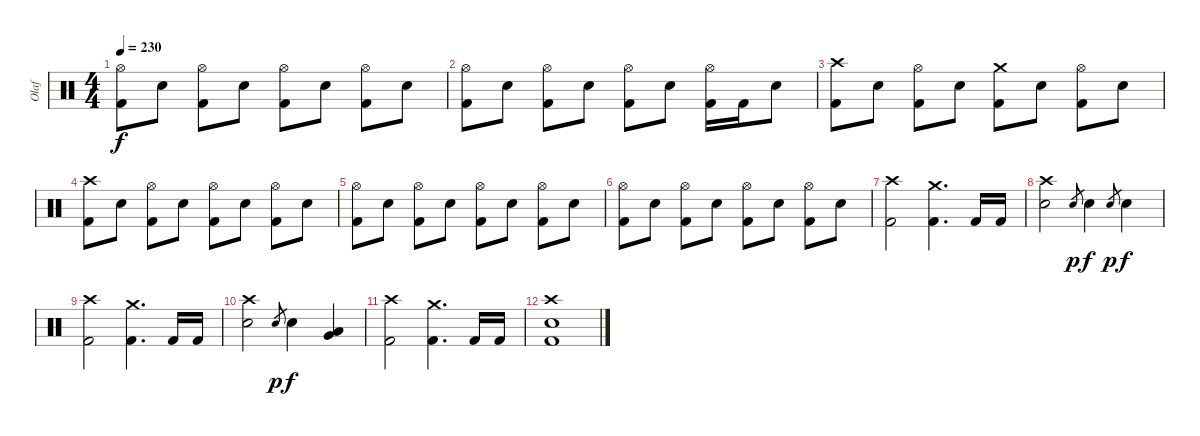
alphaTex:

\track ("Olaf" "Olaf") {instrument percussion}
\staff {score}
\articulation defaults
\ts (4 4)
\tempo 230
\clef neutral
\ks c
("Hi-Hat (open)" "Kick (hit) 2").8{dy f} "Electric Snare (hit)".8 ("Hi-Hat (open)" "Kick (hit) 2").8 "Electric Snare (hit)".8 ("Hi-Hat (open)" "Kick (hit) 2").8 "Electric Snare (hit)".8 ("Hi-Hat (open)" "Kick (hit) 2").8 "Electric Snare (hit)".8 |
("Hi-Hat (open)" "Kick (hit) 2").8 "Electric Snare (hit)".8 ("Hi-Hat (open)" "Kick (hit) 2").8 "Electric Snare (hit)".8 ("Hi-Hat (open)" "Kick (hit) 2").8 "Electric Snare (hit)".8 ("Hi-Hat (open)" "Kick (hit) 2").16 "Kick (hit) 2".16 "Electric Snare (hit)".8 |
("Crash high (hit)" "Kick (hit) 2").8 "Electric Snare (hit)".8 ("Hi-Hat (open)" "Kick (hit) 2").8 "Electric Snare (hit)".8 ("Crash medium (hit)" "Kick (hit) 2").8 "Electric Snare (hit)".8 ("Hi-Hat (open)" "Kick (hit) 2").8 "Electric Snare (hit)".8 |
("Crash high (hit)" "Kick (hit) 2").8 "Electric Snare (hit)".8 ("Hi-Hat (open)" "Kick (hit) 2").8 "Electric Snare (hit)".8 ("Hi-Hat (open)" "Kick (hit) 2").8 "Electric Snare (hit)".8 ("Hi-Hat (open)" "Kick (hit) 2").8 "Electric Snare (hit)".8 |
("Hi-Hat (open)" "Kick (hit) 2").8 "Electric Snare (hit)".8 ("Hi-Hat (open)" "Kick (hit) 2").8 "Electric Snare (hit)".8 ("Hi-Hat (open)" "Kick (hit) 2").8 "Electric Snare (hit)".8 ("Hi-Hat (open)" "Kick (hit) 2").8 "Electric Snare (hit)".8 |
("Hi-Hat (open)" "Kick (hit) 2").8 "Electric Snare (hit)".8 ("Hi-Hat (open)" "Kick (hit) 2").8 "Electric Snare (hit)".8 ("Hi-Hat (open)" "Kick (hit) 2").8 "Electric Snare (hit)".8 ("Hi-Hat (open)" "Kick (hit) 2").8 "Electric Snare (hit)".8 |
("Crash high (hit)" "Kick (hit) 2").2 ("Crash medium (hit)" "Kick (hit) 2").4{d} "Kick (hit) 2".16 "Kick (hit) 2".16 |
("Crash high (hit)" "Electric Snare (hit)").2 "Electric Snare (hit)".8{gr dy p} "Electric Snare (hit)".4{dy f} "Electric Snare (hit)".8{gr dy p} "Electric Snare (hit)".4{dy f} |
("Crash high (hit)" "Kick (hit) 2").2 ("Crash medium (hit)" "Kick (hit) 2").4{d} "Kick (hit) 2".16 "Kick (hit) 2".16 |
("Crash high (hit)" "Electric Snare (hit)").2 "Electric Snare (hit)".8{gr dy p} "Electric Snare (hit)".4{dy f} ("Very Low Tom (hit)" "Low Floor Tom (hit)").4 |
("Crash high (hit)" "Kick (hit) 2").2 ("Crash medium (hit)" "Kick (hit) 2").4{d} "Kick (hit) 2".16 "Kick (hit) 2".16 |
("Crash high (hit)" "Electric Snare (hit)" "Kick (hit) 2").1
